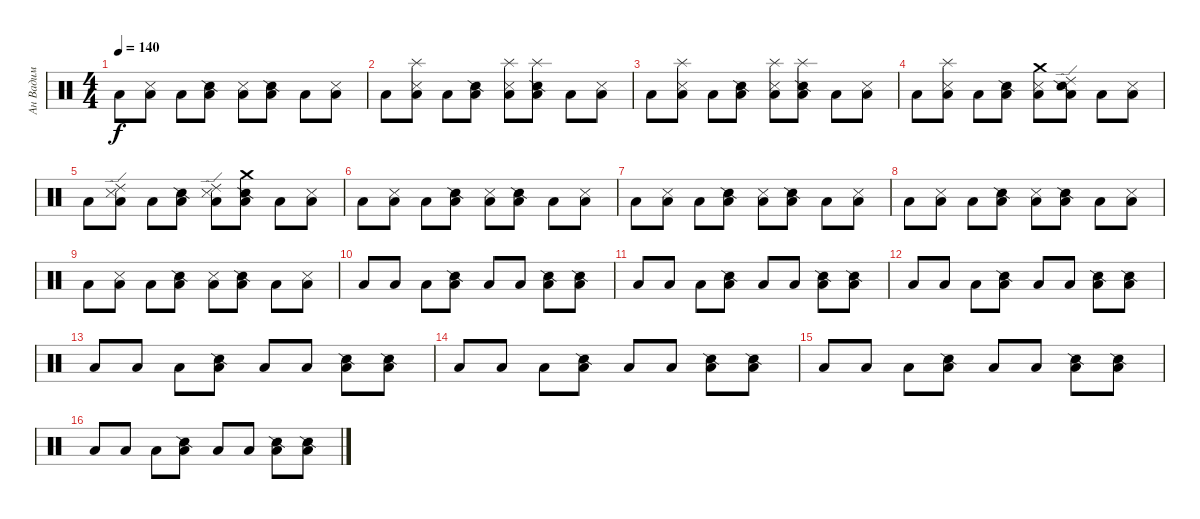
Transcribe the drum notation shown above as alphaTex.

\track ("Ан Вадим" "Ан Вадим") {instrument percussion}
\staff {score}
\articulation defaults
\ts (4 4)
\tempo 140
\clef neutral
\ks c "Low Floor Tom (hit)".8{dy f}
("Metronome (hit)" "Low Floor Tom (hit)").8 "Low Floor Tom (hit)".8 ("Snare (side stick) 2" "Low Floor Tom (hit)").8 ("Metronome (hit)" "Low Floor Tom (hit)").8 ("Snare (side stick) 2" "Low Floor Tom (hit)").8 "Low Floor Tom (hit)".8 ("Metronome (hit)" "Low Floor Tom (hit)").8 |
"Low Floor Tom (hit)".8 ("Metronome (hit)" "Splash (hit)" "Low Floor Tom (hit)").8 "Low Floor Tom (hit)".8 ("Snare (side stick) 2" "Low Floor Tom (hit)").8 ("Metronome (hit)" "Splash (hit)" "Low Floor Tom (hit)").8 ("Snare (side stick) 2" "Splash (hit)" "Low Floor Tom (hit)").8 "Low Floor Tom (hit)".8 ("Metronome (hit)" "Low Floor Tom (hit)").8 |
"Low Floor Tom (hit)".8 ("Metronome (hit)" "Splash (hit)" "Low Floor Tom (hit)").8 "Low Floor Tom (hit)".8 ("Snare (side stick) 2" "Low Floor Tom (hit)").8 ("Metronome (hit)" "Splash (hit)" "Low Floor Tom (hit)").8 ("Snare (side stick) 2" "Splash (hit)" "Low Floor Tom (hit)").8 "Low Floor Tom (hit)".8 ("Metronome (hit)" "Low Floor Tom (hit)").8 |
"Low Floor Tom (hit)".8 ("Metronome (hit)" "Splash (hit)" "Low Floor Tom (hit)").8 "Low Floor Tom (hit)".8 ("Snare (side stick) 2" "Low Floor Tom (hit)").8 ("Metronome (hit)" "Crash medium (hit)" "Low Floor Tom (hit)").8 ("Snare (side stick) 2" "Ride (edge) 2" "Low Floor Tom (hit)").8 "Low Floor Tom (hit)".8 ("Metronome (hit)" "Low Floor Tom (hit)").8 |
"Low Floor Tom (hit)".8 ("Metronome (hit)" "Ride (edge) 2" "Low Floor Tom (hit)").8 "Low Floor Tom (hit)".8 ("Snare (side stick) 2" "Low Floor Tom (hit)").8 ("Metronome (hit)" "Ride (edge) 2" "Low Floor Tom (hit)").8 ("Snare (side stick) 2" "Crash medium (hit)" "Low Floor Tom (hit)").8 "Low Floor Tom (hit)".8 ("Metronome (hit)" "Low Floor Tom (hit)").8 |
"Low Floor Tom (hit)".8 ("Metronome (hit)" "Low Floor Tom (hit)").8 "Low Floor Tom (hit)".8 ("Snare (side stick) 2" "Low Floor Tom (hit)").8 ("Metronome (hit)" "Low Floor Tom (hit)").8 ("Snare (side stick) 2" "Low Floor Tom (hit)").8 "Low Floor Tom (hit)".8 ("Metronome (hit)" "Low Floor Tom (hit)").8 |
"Low Floor Tom (hit)".8 ("Metronome (hit)" "Low Floor Tom (hit)").8 "Low Floor Tom (hit)".8 ("Snare (side stick) 2" "Low Floor Tom (hit)").8 ("Metronome (hit)" "Low Floor Tom (hit)").8 ("Snare (side stick) 2" "Low Floor Tom (hit)").8 "Low Floor Tom (hit)".8 ("Metronome (hit)" "Low Floor Tom (hit)").8 |
"Low Floor Tom (hit)".8 ("Metronome (hit)" "Low Floor Tom (hit)").8 "Low Floor Tom (hit)".8 ("Snare (side stick) 2" "Low Floor Tom (hit)").8 ("Metronome (hit)" "Low Floor Tom (hit)").8 ("Snare (side stick) 2" "Low Floor Tom (hit)").8 "Low Floor Tom (hit)".8 ("Metronome (hit)" "Low Floor Tom (hit)").8 |
"Low Floor Tom (hit)".8 ("Metronome (hit)" "Low Floor Tom (hit)").8 "Low Floor Tom (hit)".8 ("Snare (side stick) 2" "Low Floor Tom (hit)").8 ("Metronome (hit)" "Low Floor Tom (hit)").8 ("Snare (side stick) 2" "Low Floor Tom (hit)").8 "Low Floor Tom (hit)".8 ("Metronome (hit)" "Low Floor Tom (hit)").8 |
"Low Floor Tom (hit)".8 "Low Floor Tom (hit)".8 "Low Floor Tom (hit)".8 ("Snare (side stick) 2" "Low Floor Tom (hit)").8 "Low Floor Tom (hit)".8 "Low Floor Tom (hit)".8 ("Snare (side stick) 2" "Low Floor Tom (hit)").8 ("Snare (side stick) 2" "Low Floor Tom (hit)").8 |
"Low Floor Tom (hit)".8 "Low Floor Tom (hit)".8 "Low Floor Tom (hit)".8 ("Snare (side stick) 2" "Low Floor Tom (hit)").8 "Low Floor Tom (hit)".8 "Low Floor Tom (hit)".8 ("Snare (side stick) 2" "Low Floor Tom (hit)").8 ("Snare (side stick) 2" "Low Floor Tom (hit)").8 |
"Low Floor Tom (hit)".8 "Low Floor Tom (hit)".8 "Low Floor Tom (hit)".8 ("Snare (side stick) 2" "Low Floor Tom (hit)").8 "Low Floor Tom (hit)".8 "Low Floor Tom (hit)".8 ("Snare (side stick) 2" "Low Floor Tom (hit)").8 ("Snare (side stick) 2" "Low Floor Tom (hit)").8 |
"Low Floor Tom (hit)".8 "Low Floor Tom (hit)".8 "Low Floor Tom (hit)".8 ("Snare (side stick) 2" "Low Floor Tom (hit)").8 "Low Floor Tom (hit)".8 "Low Floor Tom (hit)".8 ("Snare (side stick) 2" "Low Floor Tom (hit)").8 ("Snare (side stick) 2" "Low Floor Tom (hit)").8 |
"Low Floor Tom (hit)".8 "Low Floor Tom (hit)".8 "Low Floor Tom (hit)".8 ("Snare (side stick) 2" "Low Floor Tom (hit)").8 "Low Floor Tom (hit)".8 "Low Floor Tom (hit)".8 ("Snare (side stick) 2" "Low Floor Tom (hit)").8 ("Snare (side stick) 2" "Low Floor Tom (hit)").8 |
"Low Floor Tom (hit)".8 "Low Floor Tom (hit)".8 "Low Floor Tom (hit)".8 ("Snare (side stick) 2" "Low Floor Tom (hit)").8 "Low Floor Tom (hit)".8 "Low Floor Tom (hit)".8 ("Snare (side stick) 2" "Low Floor Tom (hit)").8 ("Snare (side stick) 2" "Low Floor Tom (hit)").8 |
"Low Floor Tom (hit)".8 "Low Floor Tom (hit)".8 "Low Floor Tom (hit)".8 ("Snare (side stick) 2" "Low Floor Tom (hit)").8 "Low Floor Tom (hit)".8 "Low Floor Tom (hit)".8 ("Snare (side stick) 2" "Low Floor Tom (hit)").8 ("Snare (side stick) 2" "Low Floor Tom (hit)").8
